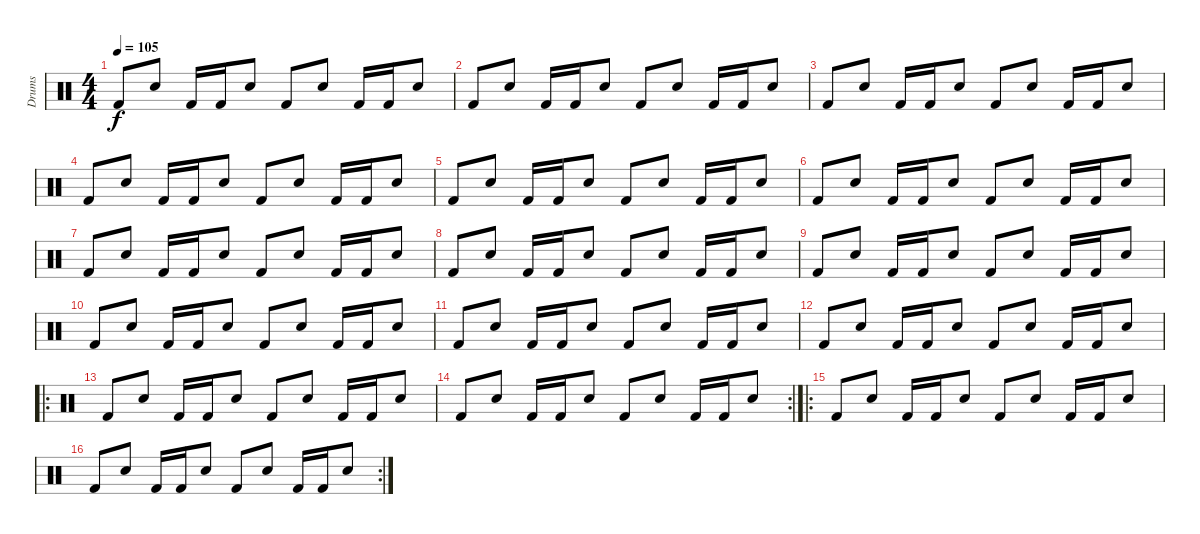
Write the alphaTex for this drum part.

\track ("Drums" "Drums") {instrument percussion}
\staff {score}
\articulation defaults
\ts (4 4)
\tempo 105
\clef neutral
\ks c "Kick (hit) 2".8{dy f} "Snare (hit) 2".8 "Kick (hit) 2".16 "Kick (hit) 2".16 "Snare (hit) 2".8 "Kick (hit) 2".8 "Snare (hit) 2".8 "Kick (hit) 2".16 "Kick (hit) 2".16 "Snare (hit) 2".8
|
"Kick (hit) 2".8 "Snare (hit) 2".8 "Kick (hit) 2".16 "Kick (hit) 2".16 "Snare (hit) 2".8 "Kick (hit) 2".8 "Snare (hit) 2".8 "Kick (hit) 2".16 "Kick (hit) 2".16 "Snare (hit) 2".8 |
"Kick (hit) 2".8 "Snare (hit) 2".8 "Kick (hit) 2".16 "Kick (hit) 2".16 "Snare (hit) 2".8 "Kick (hit) 2".8 "Snare (hit) 2".8 "Kick (hit) 2".16 "Kick (hit) 2".16 "Snare (hit) 2".8 |
"Kick (hit) 2".8 "Snare (hit) 2".8 "Kick (hit) 2".16 "Kick (hit) 2".16 "Snare (hit) 2".8 "Kick (hit) 2".8 "Snare (hit) 2".8 "Kick (hit) 2".16 "Kick (hit) 2".16 "Snare (hit) 2".8 |
"Kick (hit) 2".8 "Snare (hit) 2".8 "Kick (hit) 2".16 "Kick (hit) 2".16 "Snare (hit) 2".8 "Kick (hit) 2".8 "Snare (hit) 2".8 "Kick (hit) 2".16 "Kick (hit) 2".16 "Snare (hit) 2".8 |
"Kick (hit) 2".8 "Snare (hit) 2".8 "Kick (hit) 2".16 "Kick (hit) 2".16 "Snare (hit) 2".8 "Kick (hit) 2".8 "Snare (hit) 2".8 "Kick (hit) 2".16 "Kick (hit) 2".16 "Snare (hit) 2".8 |
"Kick (hit) 2".8 "Snare (hit) 2".8 "Kick (hit) 2".16 "Kick (hit) 2".16 "Snare (hit) 2".8 "Kick (hit) 2".8 "Snare (hit) 2".8 "Kick (hit) 2".16 "Kick (hit) 2".16 "Snare (hit) 2".8 |
"Kick (hit) 2".8 "Snare (hit) 2".8 "Kick (hit) 2".16 "Kick (hit) 2".16 "Snare (hit) 2".8 "Kick (hit) 2".8 "Snare (hit) 2".8 "Kick (hit) 2".16 "Kick (hit) 2".16 "Snare (hit) 2".8 |
"Kick (hit) 2".8 "Snare (hit) 2".8 "Kick (hit) 2".16 "Kick (hit) 2".16 "Snare (hit) 2".8 "Kick (hit) 2".8 "Snare (hit) 2".8 "Kick (hit) 2".16 "Kick (hit) 2".16 "Snare (hit) 2".8 |
"Kick (hit) 2".8 "Snare (hit) 2".8 "Kick (hit) 2".16 "Kick (hit) 2".16 "Snare (hit) 2".8 "Kick (hit) 2".8 "Snare (hit) 2".8 "Kick (hit) 2".16 "Kick (hit) 2".16 "Snare (hit) 2".8 |
"Kick (hit) 2".8 "Snare (hit) 2".8 "Kick (hit) 2".16 "Kick (hit) 2".16 "Snare (hit) 2".8 "Kick (hit) 2".8 "Snare (hit) 2".8 "Kick (hit) 2".16 "Kick (hit) 2".16 "Snare (hit) 2".8 |
"Kick (hit) 2".8 "Snare (hit) 2".8 "Kick (hit) 2".16 "Kick (hit) 2".16 "Snare (hit) 2".8 "Kick (hit) 2".8 "Snare (hit) 2".8 "Kick (hit) 2".16 "Kick (hit) 2".16 "Snare (hit) 2".8 |
\ro "Kick (hit) 2".8 "Snare (hit) 2".8 "Kick (hit) 2".16 "Kick (hit) 2".16 "Snare (hit) 2".8 "Kick (hit) 2".8 "Snare (hit) 2".8 "Kick (hit) 2".16 "Kick (hit) 2".16 "Snare (hit) 2".8
|
\rc 2 "Kick (hit) 2".8 "Snare (hit) 2".8 "Kick (hit) 2".16 "Kick (hit) 2".16 "Snare (hit) 2".8 "Kick (hit) 2".8 "Snare (hit) 2".8 "Kick (hit) 2".16 "Kick (hit) 2".16 "Snare (hit) 2".8
|
\ro "Kick (hit) 2".8 "Snare (hit) 2".8 "Kick (hit) 2".16 "Kick (hit) 2".16 "Snare (hit) 2".8 "Kick (hit) 2".8 "Snare (hit) 2".8 "Kick (hit) 2".16 "Kick (hit) 2".16 "Snare (hit) 2".8
|
\rc 2 "Kick (hit) 2".8 "Snare (hit) 2".8 "Kick (hit) 2".16 "Kick (hit) 2".16 "Snare (hit) 2".8 "Kick (hit) 2".8 "Snare (hit) 2".8 "Kick (hit) 2".16 "Kick (hit) 2".16 "Snare (hit) 2".8
